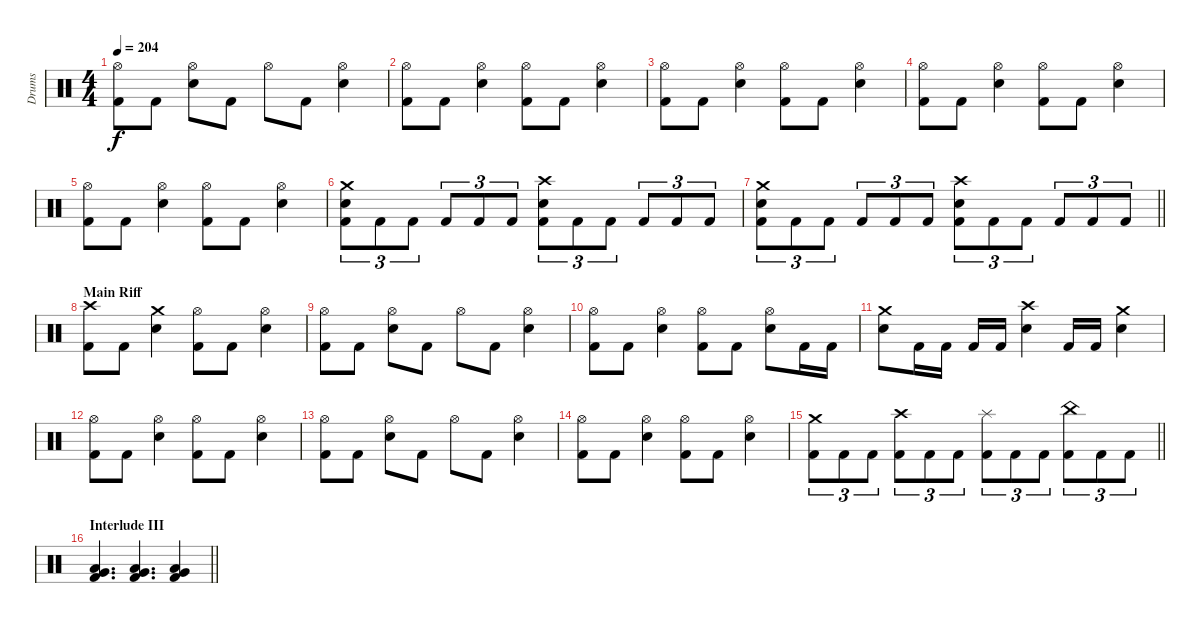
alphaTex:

\track ("Drums" "Drums") {instrument percussion}
\staff {score}
\articulation defaults
\ts (4 4)
\tempo 204
\clef neutral
\ks c
("Hi-Hat (open)" "Kick (hit) 2").8{dy f} "Kick (hit) 2".8 ("Hi-Hat (open)" "Electric Snare (hit)").8 "Kick (hit) 2".8 "Hi-Hat (open)".8 "Kick (hit) 2".8 ("Hi-Hat (open)" "Electric Snare (hit)").4 |
("Hi-Hat (open)" "Kick (hit) 2").8 "Kick (hit) 2".8 ("Hi-Hat (open)" "Electric Snare (hit)").4 ("Hi-Hat (open)" "Kick (hit) 2").8 "Kick (hit) 2".8 ("Hi-Hat (open)" "Electric Snare (hit)").4 |
("Hi-Hat (open)" "Kick (hit) 2").8 "Kick (hit) 2".8 ("Hi-Hat (open)" "Electric Snare (hit)").4 ("Hi-Hat (open)" "Kick (hit) 2").8 "Kick (hit) 2".8 ("Hi-Hat (open)" "Electric Snare (hit)").4 |
("Hi-Hat (open)" "Kick (hit) 2").8 "Kick (hit) 2".8 ("Hi-Hat (open)" "Electric Snare (hit)").4 ("Hi-Hat (open)" "Kick (hit) 2").8 "Kick (hit) 2".8 ("Hi-Hat (open)" "Electric Snare (hit)").4 |
("Hi-Hat (open)" "Kick (hit) 2").8 "Kick (hit) 2".8 ("Hi-Hat (open)" "Electric Snare (hit)").4 ("Hi-Hat (open)" "Kick (hit) 2").8 "Kick (hit) 2".8 ("Hi-Hat (open)" "Electric Snare (hit)").4 |
("Crash medium (hit)" "Electric Snare (hit)" "Kick (hit) 2").8{tu (3 2)} "Kick (hit) 2".8{tu (3 2)} "Kick (hit) 2".8{tu (3 2)} "Kick (hit) 2".8{tu (3 2)} "Kick (hit) 2".8{tu (3 2)} "Kick (hit) 2".8{tu (3 2)} ("Crash high (hit)" "Electric Snare (hit)" "Kick (hit) 2").8{tu (3 2)} "Kick (hit) 2".8{tu (3 2)} "Kick (hit) 2".8{tu (3 2)} "Kick (hit) 2".8{tu (3 2)} "Kick (hit) 2".8{tu (3 2)} "Kick (hit) 2".8{tu (3 2)} |
\barLineRight lightlight
("Crash medium (hit)" "Electric Snare (hit)" "Kick (hit) 2").8{tu (3 2)} "Kick (hit) 2".8{tu (3 2)} "Kick (hit) 2".8{tu (3 2)} "Kick (hit) 2".8{tu (3 2)} "Kick (hit) 2".8{tu (3 2)} "Kick (hit) 2".8{tu (3 2)} ("Crash high (hit)" "Electric Snare (hit)" "Kick (hit) 2").8{tu (3 2)} "Kick (hit) 2".8{tu (3 2)} "Kick (hit) 2".8{tu (3 2)} "Kick (hit) 2".8{tu (3 2)} "Kick (hit) 2".8{tu (3 2)} "Kick (hit) 2".8{tu (3 2)} |
\section ("" "Main Riff")
("Crash high (hit)" "Kick (hit) 2").8 "Kick (hit) 2".8 ("Crash medium (hit)" "Electric Snare (hit)").4 ("Hi-Hat (open)" "Kick (hit) 2").8 "Kick (hit) 2".8 ("Hi-Hat (open)" "Electric Snare (hit)").4 |
("Hi-Hat (open)" "Kick (hit) 2").8 "Kick (hit) 2".8 ("Hi-Hat (open)" "Electric Snare (hit)").8 "Kick (hit) 2".8 "Hi-Hat (open)".8 "Kick (hit) 2".8 ("Hi-Hat (open)" "Electric Snare (hit)").4 |
("Hi-Hat (open)" "Kick (hit) 2").8 "Kick (hit) 2".8 ("Hi-Hat (open)" "Electric Snare (hit)").4 ("Hi-Hat (open)" "Kick (hit) 2").8 "Kick (hit) 2".8 ("Hi-Hat (open)" "Electric Snare (hit)").8 "Kick (hit) 2".16 "Kick (hit) 2".16 |
("Crash medium (hit)" "Electric Snare (hit)").8 "Kick (hit) 2".16 "Kick (hit) 2".16 "Kick (hit) 2".16 "Kick (hit) 2".16 ("Crash high (hit)" "Electric Snare (hit)").4 "Kick (hit) 2".16 "Kick (hit) 2".16 ("Crash medium (hit)" "Electric Snare (hit)").4 |
("Hi-Hat (open)" "Kick (hit) 2").8 "Kick (hit) 2".8 ("Hi-Hat (open)" "Electric Snare (hit)").4 ("Hi-Hat (open)" "Kick (hit) 2").8 "Kick (hit) 2".8 ("Hi-Hat (open)" "Electric Snare (hit)").4 |
("Hi-Hat (open)" "Kick (hit) 2").8 "Kick (hit) 2".8 ("Hi-Hat (open)" "Electric Snare (hit)").8 "Kick (hit) 2".8 "Hi-Hat (open)".8 "Kick (hit) 2".8 ("Hi-Hat (open)" "Electric Snare (hit)").4 |
("Hi-Hat (open)" "Kick (hit) 2").8 "Kick (hit) 2".8 ("Hi-Hat (open)" "Electric Snare (hit)").4 ("Hi-Hat (open)" "Kick (hit) 2").8 "Kick (hit) 2".8 ("Hi-Hat (open)" "Electric Snare (hit)").4 |
\barLineRight lightlight
("Crash medium (hit)" "Kick (hit) 2").8{tu (3 2)} "Kick (hit) 2".8{tu (3 2)} "Kick (hit) 2".8{tu (3 2)} ("Crash high (hit)" "Kick (hit) 2").8{tu (3 2)} "Kick (hit) 2".8{tu (3 2)} "Kick (hit) 2".8{tu (3 2)} ("Splash (hit)" "Kick (hit) 2").8{tu (3 2)} "Kick (hit) 2".8{tu (3 2)} "Kick (hit) 2".8{tu (3 2)} ("China (hit)" "Kick (hit) 2").8{tu (3 2)} "Kick (hit) 2".8{tu (3 2)} "Kick (hit) 2".8{tu (3 2)} |
\section ("" "Interlude III")
\barLineRight lightlight
("Very Low Tom (hit)" "Low Floor Tom (hit)" "Kick (hit) 2").4{d} ("Very Low Tom (hit)" "Low Floor Tom (hit)" "Kick (hit) 2").4{d} ("Very Low Tom (hit)" "Low Floor Tom (hit)" "Kick (hit) 2").4
